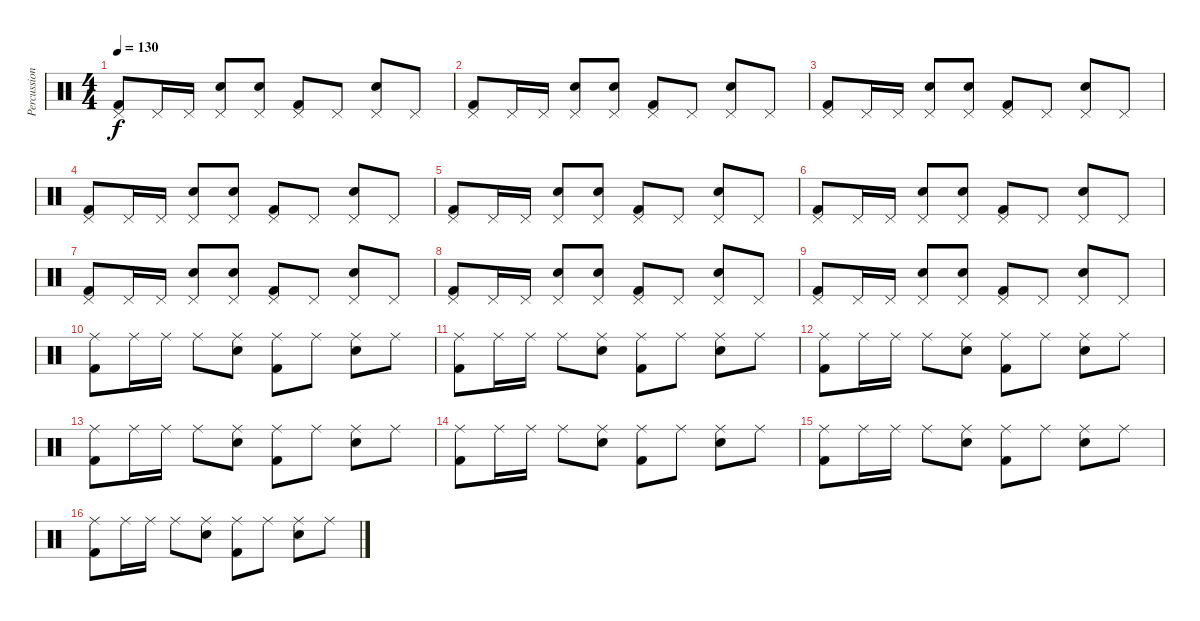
\track ("Percussion" "Percussion") {instrument percussion}
\staff {score}
\articulation defaults
\ts (4 4)
\tempo 130
\clef neutral
\ks c
("Pedal Hi-Hat (hit)" "Kick (hit) 2").8{dy f} "Pedal Hi-Hat (hit)".16 "Pedal Hi-Hat (hit)".16 ("Pedal Hi-Hat (hit)" "Snare (hit) 2").8 ("Pedal Hi-Hat (hit)" "Snare (hit) 2").8 ("Pedal Hi-Hat (hit)" "Kick (hit) 2").8 "Pedal Hi-Hat (hit)".8 ("Pedal Hi-Hat (hit)" "Snare (hit) 2").8 "Pedal Hi-Hat (hit)".8 |
("Pedal Hi-Hat (hit)" "Kick (hit) 2").8 "Pedal Hi-Hat (hit)".16 "Pedal Hi-Hat (hit)".16 ("Pedal Hi-Hat (hit)" "Snare (hit) 2").8 ("Pedal Hi-Hat (hit)" "Snare (hit) 2").8 ("Pedal Hi-Hat (hit)" "Kick (hit) 2").8 "Pedal Hi-Hat (hit)".8 ("Pedal Hi-Hat (hit)" "Snare (hit) 2").8 "Pedal Hi-Hat (hit)".8 |
("Pedal Hi-Hat (hit)" "Kick (hit) 2").8 "Pedal Hi-Hat (hit)".16 "Pedal Hi-Hat (hit)".16 ("Pedal Hi-Hat (hit)" "Snare (hit) 2").8 ("Pedal Hi-Hat (hit)" "Snare (hit) 2").8 ("Pedal Hi-Hat (hit)" "Kick (hit) 2").8 "Pedal Hi-Hat (hit)".8 ("Pedal Hi-Hat (hit)" "Snare (hit) 2").8 "Pedal Hi-Hat (hit)".8 |
("Pedal Hi-Hat (hit)" "Kick (hit) 2").8 "Pedal Hi-Hat (hit)".16 "Pedal Hi-Hat (hit)".16 ("Pedal Hi-Hat (hit)" "Snare (hit) 2").8 ("Pedal Hi-Hat (hit)" "Snare (hit) 2").8 ("Pedal Hi-Hat (hit)" "Kick (hit) 2").8 "Pedal Hi-Hat (hit)".8 ("Pedal Hi-Hat (hit)" "Snare (hit) 2").8 "Pedal Hi-Hat (hit)".8 |
("Pedal Hi-Hat (hit)" "Kick (hit) 2").8 "Pedal Hi-Hat (hit)".16 "Pedal Hi-Hat (hit)".16 ("Pedal Hi-Hat (hit)" "Snare (hit) 2").8 ("Pedal Hi-Hat (hit)" "Snare (hit) 2").8 ("Pedal Hi-Hat (hit)" "Kick (hit) 2").8 "Pedal Hi-Hat (hit)".8 ("Pedal Hi-Hat (hit)" "Snare (hit) 2").8 "Pedal Hi-Hat (hit)".8 |
("Pedal Hi-Hat (hit)" "Kick (hit) 2").8 "Pedal Hi-Hat (hit)".16 "Pedal Hi-Hat (hit)".16 ("Pedal Hi-Hat (hit)" "Snare (hit) 2").8 ("Pedal Hi-Hat (hit)" "Snare (hit) 2").8 ("Pedal Hi-Hat (hit)" "Kick (hit) 2").8 "Pedal Hi-Hat (hit)".8 ("Pedal Hi-Hat (hit)" "Snare (hit) 2").8 "Pedal Hi-Hat (hit)".8 |
("Pedal Hi-Hat (hit)" "Kick (hit) 2").8 "Pedal Hi-Hat (hit)".16 "Pedal Hi-Hat (hit)".16 ("Pedal Hi-Hat (hit)" "Snare (hit) 2").8 ("Pedal Hi-Hat (hit)" "Snare (hit) 2").8 ("Pedal Hi-Hat (hit)" "Kick (hit) 2").8 "Pedal Hi-Hat (hit)".8 ("Pedal Hi-Hat (hit)" "Snare (hit) 2").8 "Pedal Hi-Hat (hit)".8 |
("Pedal Hi-Hat (hit)" "Kick (hit) 2").8 "Pedal Hi-Hat (hit)".16 "Pedal Hi-Hat (hit)".16 ("Pedal Hi-Hat (hit)" "Snare (hit) 2").8 ("Pedal Hi-Hat (hit)" "Snare (hit) 2").8 ("Pedal Hi-Hat (hit)" "Kick (hit) 2").8 "Pedal Hi-Hat (hit)".8 ("Pedal Hi-Hat (hit)" "Snare (hit) 2").8 "Pedal Hi-Hat (hit)".8 |
("Pedal Hi-Hat (hit)" "Kick (hit) 2").8 "Pedal Hi-Hat (hit)".16 "Pedal Hi-Hat (hit)".16 ("Pedal Hi-Hat (hit)" "Snare (hit) 2").8 ("Pedal Hi-Hat (hit)" "Snare (hit) 2").8 ("Pedal Hi-Hat (hit)" "Kick (hit) 2").8 "Pedal Hi-Hat (hit)".8 ("Pedal Hi-Hat (hit)" "Snare (hit) 2").8 "Pedal Hi-Hat (hit)".8 |
("Ride (middle)" "Kick (hit) 2").8 "Ride (middle)".16 "Ride (middle)".16 "Ride (middle)".8 ("Ride (middle)" "Snare (hit) 2").8 ("Ride (middle)" "Kick (hit) 2").8 "Ride (middle)".8 ("Ride (middle)" "Snare (hit) 2").8 "Ride (middle)".8 |
("Ride (middle)" "Kick (hit) 2").8 "Ride (middle)".16 "Ride (middle)".16 "Ride (middle)".8 ("Ride (middle)" "Snare (hit) 2").8 ("Ride (middle)" "Kick (hit) 2").8 "Ride (middle)".8 ("Ride (middle)" "Snare (hit) 2").8 "Ride (middle)".8 |
("Ride (middle)" "Kick (hit) 2").8 "Ride (middle)".16 "Ride (middle)".16 "Ride (middle)".8 ("Ride (middle)" "Snare (hit) 2").8 ("Ride (middle)" "Kick (hit) 2").8 "Ride (middle)".8 ("Ride (middle)" "Snare (hit) 2").8 "Ride (middle)".8 |
("Ride (middle)" "Kick (hit) 2").8 "Ride (middle)".16 "Ride (middle)".16 "Ride (middle)".8 ("Ride (middle)" "Snare (hit) 2").8 ("Ride (middle)" "Kick (hit) 2").8 "Ride (middle)".8 ("Ride (middle)" "Snare (hit) 2").8 "Ride (middle)".8 |
("Ride (middle)" "Kick (hit) 2").8 "Ride (middle)".16 "Ride (middle)".16 "Ride (middle)".8 ("Ride (middle)" "Snare (hit) 2").8 ("Ride (middle)" "Kick (hit) 2").8 "Ride (middle)".8 ("Ride (middle)" "Snare (hit) 2").8 "Ride (middle)".8 |
("Ride (middle)" "Kick (hit) 2").8 "Ride (middle)".16 "Ride (middle)".16 "Ride (middle)".8 ("Ride (middle)" "Snare (hit) 2").8 ("Ride (middle)" "Kick (hit) 2").8 "Ride (middle)".8 ("Ride (middle)" "Snare (hit) 2").8 "Ride (middle)".8 |
("Ride (middle)" "Kick (hit) 2").8 "Ride (middle)".16 "Ride (middle)".16 "Ride (middle)".8 ("Ride (middle)" "Snare (hit) 2").8 ("Ride (middle)" "Kick (hit) 2").8 "Ride (middle)".8 ("Ride (middle)" "Snare (hit) 2").8 "Ride (middle)".8
